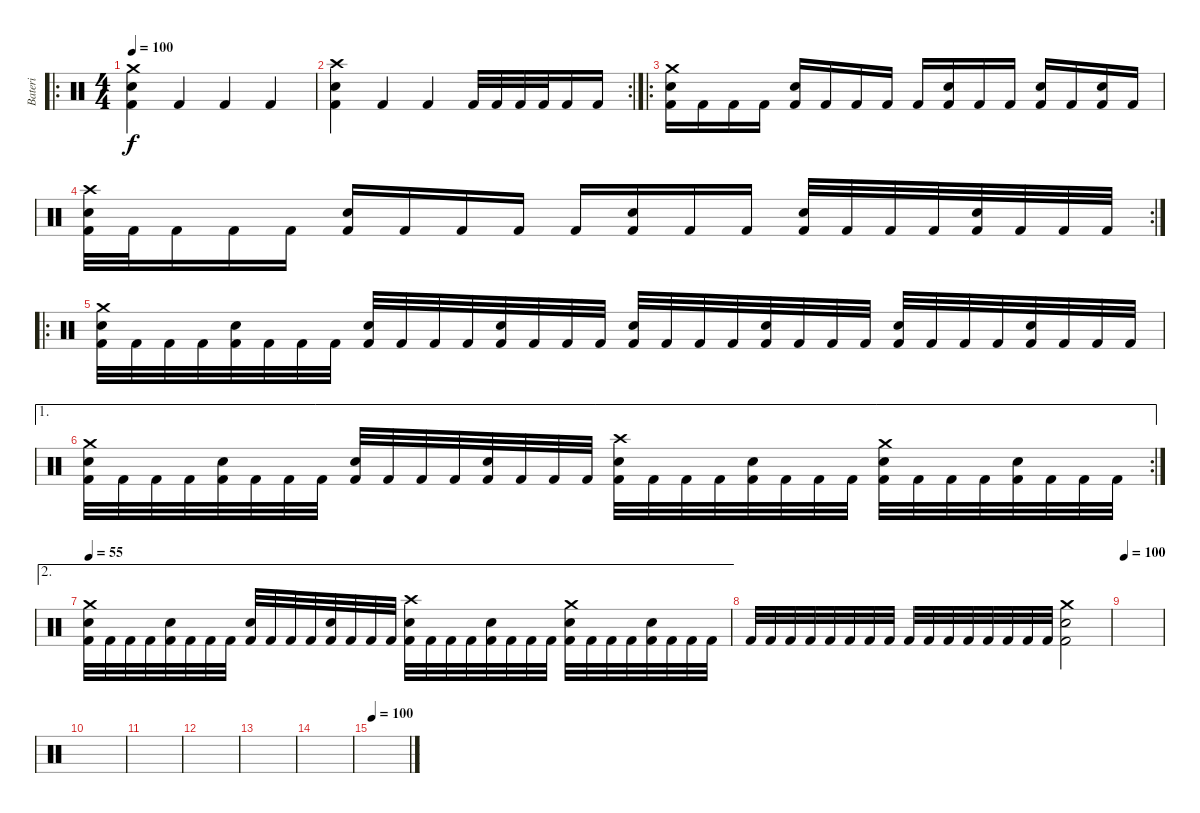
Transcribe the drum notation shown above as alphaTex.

\track ("Bateri" "Bateri") {instrument percussion}
\staff {score}
\articulation defaults
\ro
\ts (4 4)
\tempo 100
\clef neutral
\ks c
("Crash medium (hit)" "Snare (hit) 2" "Kick (hit) 2").4{dy f} "Kick (hit) 2".4 "Kick (hit) 2".4 "Kick (hit) 2".4 |
\rc 2
("Crash high (hit)" "Snare (hit) 2" "Kick (hit) 2").4 "Kick (hit) 2".4 "Kick (hit) 2".4 "Kick (hit) 2".32 "Kick (hit) 2".32 "Kick (hit) 2".32 "Kick (hit) 2".32 "Kick (hit) 2".16 "Kick (hit) 2".16 |
\ro
("Crash medium (hit)" "Snare (hit) 2" "Kick (hit) 2").16 "Kick (hit) 2".16 "Kick (hit) 2".16 "Kick (hit) 2".16 ("Snare (hit) 2" "Kick (hit) 2").16 "Kick (hit) 2".16 "Kick (hit) 2".16 "Kick (hit) 2".16 "Kick (hit) 2".16 ("Snare (hit) 2" "Kick (hit) 2").16 "Kick (hit) 2".16 "Kick (hit) 2".16 ("Snare (hit) 2" "Kick (hit) 2").16 "Kick (hit) 2".16 ("Snare (hit) 2" "Kick (hit) 2").16 "Kick (hit) 2".16 |
\rc 2
("Crash high (hit)" "Snare (hit) 2" "Kick (hit) 2").32 "Kick (hit) 2".32 "Kick (hit) 2".16 "Kick (hit) 2".16 "Kick (hit) 2".16 ("Snare (hit) 2" "Kick (hit) 2").16 "Kick (hit) 2".16 "Kick (hit) 2".16 "Kick (hit) 2".16 "Kick (hit) 2".16 ("Snare (hit) 2" "Kick (hit) 2").16 "Kick (hit) 2".16 "Kick (hit) 2".16 ("Snare (hit) 2" "Kick (hit) 2").32 "Kick (hit) 2".32 "Kick (hit) 2".32 "Kick (hit) 2".32 ("Snare (hit) 2" "Kick (hit) 2").32 "Kick (hit) 2".32 "Kick (hit) 2".32 "Kick (hit) 2".32 |
\ro
("Crash medium (hit)" "Snare (hit) 2" "Kick (hit) 2").32 "Kick (hit) 2".32 "Kick (hit) 2".32 "Kick (hit) 2".32 ("Snare (hit) 2" "Kick (hit) 2").32 "Kick (hit) 2".32 "Kick (hit) 2".32 "Kick (hit) 2".32 ("Snare (hit) 2" "Kick (hit) 2").32 "Kick (hit) 2".32 "Kick (hit) 2".32 "Kick (hit) 2".32 ("Snare (hit) 2" "Kick (hit) 2").32 "Kick (hit) 2".32 "Kick (hit) 2".32 "Kick (hit) 2".32 ("Snare (hit) 2" "Kick (hit) 2").32 "Kick (hit) 2".32 "Kick (hit) 2".32 "Kick (hit) 2".32 ("Snare (hit) 2" "Kick (hit) 2").32 "Kick (hit) 2".32 "Kick (hit) 2".32 "Kick (hit) 2".32 ("Snare (hit) 2" "Kick (hit) 2").32 "Kick (hit) 2".32 "Kick (hit) 2".32 "Kick (hit) 2".32 ("Snare (hit) 2" "Kick (hit) 2").32 "Kick (hit) 2".32 "Kick (hit) 2".32 "Kick (hit) 2".32 |
\ae 1
\rc 2
("Crash medium (hit)" "Snare (hit) 2" "Kick (hit) 2").32 "Kick (hit) 2".32 "Kick (hit) 2".32 "Kick (hit) 2".32 ("Snare (hit) 2" "Kick (hit) 2").32 "Kick (hit) 2".32 "Kick (hit) 2".32 "Kick (hit) 2".32 ("Snare (hit) 2" "Kick (hit) 2").32 "Kick (hit) 2".32 "Kick (hit) 2".32 "Kick (hit) 2".32 ("Snare (hit) 2" "Kick (hit) 2").32 "Kick (hit) 2".32 "Kick (hit) 2".32 "Kick (hit) 2".32 ("Crash high (hit)" "Snare (hit) 2" "Kick (hit) 2").32 "Kick (hit) 2".32 "Kick (hit) 2".32 "Kick (hit) 2".32 ("Snare (hit) 2" "Kick (hit) 2").32 "Kick (hit) 2".32 "Kick (hit) 2".32 "Kick (hit) 2".32 ("Crash medium (hit)" "Snare (hit) 2" "Kick (hit) 2").32 "Kick (hit) 2".32 "Kick (hit) 2".32 "Kick (hit) 2".32 ("Snare (hit) 2" "Kick (hit) 2").32 "Kick (hit) 2".32 "Kick (hit) 2".32 "Kick (hit) 2".32 |
\ae 2
\tempo 55
("Crash medium (hit)" "Snare (hit) 2" "Kick (hit) 2").32 "Kick (hit) 2".32 "Kick (hit) 2".32 "Kick (hit) 2".32 ("Snare (hit) 2" "Kick (hit) 2").32 "Kick (hit) 2".32 "Kick (hit) 2".32 "Kick (hit) 2".32 ("Snare (hit) 2" "Kick (hit) 2").32 "Kick (hit) 2".32 "Kick (hit) 2".32 "Kick (hit) 2".32 ("Snare (hit) 2" "Kick (hit) 2").32 "Kick (hit) 2".32 "Kick (hit) 2".32 "Kick (hit) 2".32 ("Crash high (hit)" "Snare (hit) 2" "Kick (hit) 2").32 "Kick (hit) 2".32 "Kick (hit) 2".32 "Kick (hit) 2".32 ("Snare (hit) 2" "Kick (hit) 2").32 "Kick (hit) 2".32 "Kick (hit) 2".32 "Kick (hit) 2".32 ("Crash medium (hit)" "Snare (hit) 2" "Kick (hit) 2").32 "Kick (hit) 2".32 "Kick (hit) 2".32 "Kick (hit) 2".32 ("Snare (hit) 2" "Kick (hit) 2").32 "Kick (hit) 2".32 "Kick (hit) 2".32 "Kick (hit) 2".32 |
\section ("" "")
"Kick (hit) 2".32 "Kick (hit) 2".32 "Kick (hit) 2".32 "Kick (hit) 2".32 "Kick (hit) 2".32 "Kick (hit) 2".32 "Kick (hit) 2".32 "Kick (hit) 2".32 "Kick (hit) 2".32 "Kick (hit) 2".32 "Kick (hit) 2".32 "Kick (hit) 2".32 "Kick (hit) 2".32 "Kick (hit) 2".32 "Kick (hit) 2".32 "Kick (hit) 2".32 ("Crash medium (hit)" "Snare (hit) 2" "Kick (hit) 2").2 |
\tempo 100
|
|
|
|
|
|
\tempo 100
